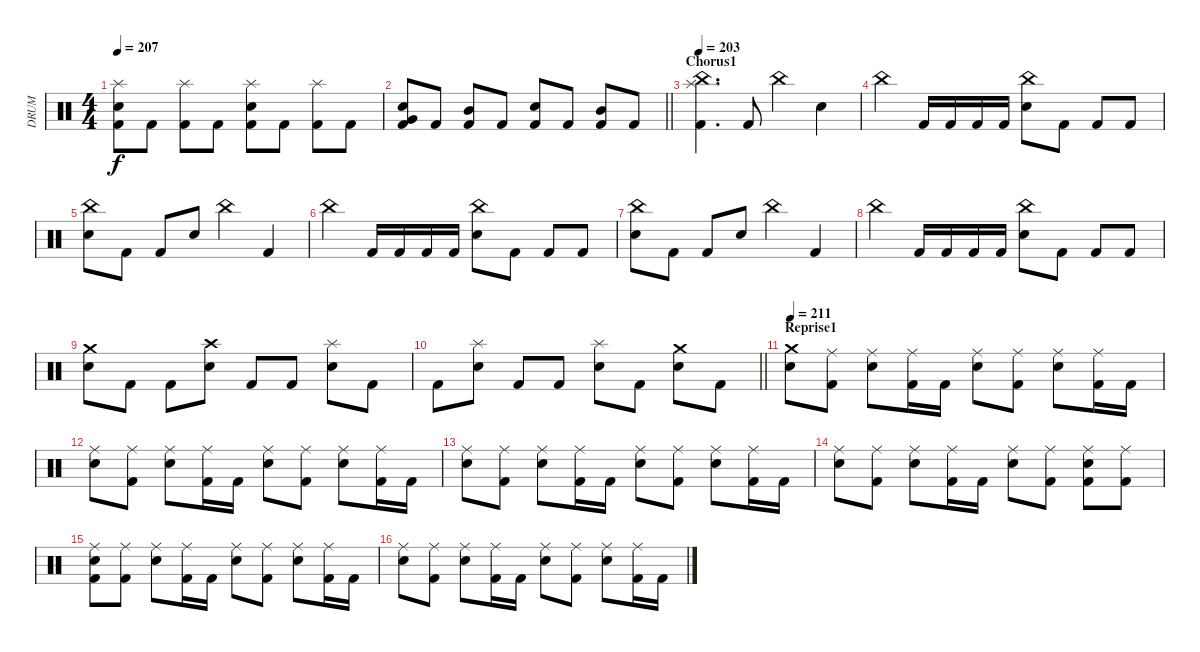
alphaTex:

\track ("DRUM" "DRUM") {instrument percussion bank 102}
\staff {score}
\articulation defaults
\ts (4 4)
\tempo 207
\clef neutral
\ks c
("Splash (hit)" "Electric Snare (hit)" "Kick (hit) 2").8{dy f} "Kick (hit) 2".8 ("Splash (hit)" "Kick (hit) 2").8 "Kick (hit) 2".8 ("Splash (hit)" "Electric Snare (hit)" "Kick (hit) 2").8 "Kick (hit) 2".8 ("Splash (hit)" "Kick (hit) 2").8 "Kick (hit) 2".8 |
\barLineRight lightlight
("Electric Snare (hit)" "Very Low Tom (hit)" "Kick (hit) 2").8 "Kick (hit) 2".8 ("Mid Tom (hit)" "Kick (hit) 2").8 "Kick (hit) 2".8 ("Electric Snare (hit)" "Kick (hit) 2").8 "Kick (hit) 2".8 ("Mid Tom (hit)" "Kick (hit) 2").8 "Kick (hit) 2".8 |
\section ("" "Chorus1")
\tempo 203
("China (hit)" "Splash (hit)" "Kick (hit) 2").4{d} "Kick (hit) 2".8 "China (hit)".4 "Electric Snare (hit)".4 |
"China (hit)".4 "Kick (hit) 2".16 "Kick (hit) 2".16 "Kick (hit) 2".16 "Kick (hit) 2".16 ("China (hit)" "Electric Snare (hit)").8 "Kick (hit) 2".8 "Kick (hit) 2".8 "Kick (hit) 2".8 |
("China (hit)" "Electric Snare (hit)").8 "Kick (hit) 2".8 "Kick (hit) 2".8 "Electric Snare (hit)".8 "China (hit)".4 "Kick (hit) 2".4 |
"China (hit)".4 "Kick (hit) 2".16 "Kick (hit) 2".16 "Kick (hit) 2".16 "Kick (hit) 2".16 ("China (hit)" "Electric Snare (hit)").8 "Kick (hit) 2".8 "Kick (hit) 2".8 "Kick (hit) 2".8 |
("China (hit)" "Electric Snare (hit)").8 "Kick (hit) 2".8 "Kick (hit) 2".8 "Electric Snare (hit)".8 "China (hit)".4 "Kick (hit) 2".4 |
"China (hit)".4 "Kick (hit) 2".16 "Kick (hit) 2".16 "Kick (hit) 2".16 "Kick (hit) 2".16 ("China (hit)" "Electric Snare (hit)").8 "Kick (hit) 2".8 "Kick (hit) 2".8 "Kick (hit) 2".8 |
("Crash medium (hit)" "Electric Snare (hit)").8 "Kick (hit) 2".8 "Kick (hit) 2".8 ("Crash high (hit)" "Electric Snare (hit)").8 "Kick (hit) 2".8 "Kick (hit) 2".8 ("Splash (hit)" "Electric Snare (hit)").8 "Kick (hit) 2".8 |
\barLineRight lightlight "Kick (hit) 2".8
("Splash (hit)" "Electric Snare (hit)").8 "Kick (hit) 2".8 "Kick (hit) 2".8 ("Splash (hit)" "Electric Snare (hit)").8 "Kick (hit) 2".8 ("Crash medium (hit)" "Electric Snare (hit)").8 "Kick (hit) 2".8 |
\section ("" "Reprise1")
\tempo 211
("Crash medium (hit)" "Electric Snare (hit)").8 ("Ride (middle)" "Kick (hit) 2").8 ("Ride (middle)" "Electric Snare (hit)").8 ("Ride (middle)" "Kick (hit) 2").16 "Kick (hit) 2".16 ("Ride (middle)" "Electric Snare (hit)").8 ("Ride (middle)" "Kick (hit) 2").8 ("Ride (middle)" "Electric Snare (hit)").8 ("Ride (middle)" "Kick (hit) 2").16 "Kick (hit) 2".16 |
("Ride (middle)" "Electric Snare (hit)").8 ("Ride (middle)" "Kick (hit) 2").8 ("Ride (middle)" "Electric Snare (hit)").8 ("Ride (middle)" "Kick (hit) 2").16 "Kick (hit) 2".16 ("Ride (middle)" "Electric Snare (hit)").8 ("Ride (middle)" "Kick (hit) 2").8 ("Ride (middle)" "Electric Snare (hit)").8 ("Ride (middle)" "Kick (hit) 2").16 "Kick (hit) 2".16 |
("Ride (middle)" "Electric Snare (hit)").8 ("Ride (middle)" "Kick (hit) 2").8 ("Ride (middle)" "Electric Snare (hit)").8 ("Ride (middle)" "Kick (hit) 2").16 "Kick (hit) 2".16 ("Ride (middle)" "Electric Snare (hit)").8 ("Ride (middle)" "Kick (hit) 2").8 ("Ride (middle)" "Electric Snare (hit)").8 ("Ride (middle)" "Kick (hit) 2").16 "Kick (hit) 2".16 |
("Ride (middle)" "Electric Snare (hit)").8 ("Ride (middle)" "Kick (hit) 2").8 ("Ride (middle)" "Electric Snare (hit)").8 ("Ride (middle)" "Kick (hit) 2").16 "Kick (hit) 2".16 ("Ride (middle)" "Electric Snare (hit)").8 ("Ride (middle)" "Kick (hit) 2").8 ("Ride (middle)" "Electric Snare (hit)" "Kick (hit) 2").8 ("Ride (middle)" "Kick (hit) 2").8 |
("Ride (middle)" "Electric Snare (hit)" "Kick (hit) 2").8 ("Ride (middle)" "Kick (hit) 2").8 ("Ride (middle)" "Electric Snare (hit)").8 ("Ride (middle)" "Kick (hit) 2").16 "Kick (hit) 2".16 ("Ride (middle)" "Electric Snare (hit)").8 ("Ride (middle)" "Kick (hit) 2").8 ("Ride (middle)" "Electric Snare (hit)").8 ("Ride (middle)" "Kick (hit) 2").16 "Kick (hit) 2".16 |
("Ride (middle)" "Electric Snare (hit)").8 ("Ride (middle)" "Kick (hit) 2").8 ("Ride (middle)" "Electric Snare (hit)").8 ("Ride (middle)" "Kick (hit) 2").16 "Kick (hit) 2".16 ("Ride (middle)" "Electric Snare (hit)").8 ("Ride (middle)" "Kick (hit) 2").8 ("Ride (middle)" "Electric Snare (hit)").8 ("Ride (middle)" "Kick (hit) 2").16 "Kick (hit) 2".16
